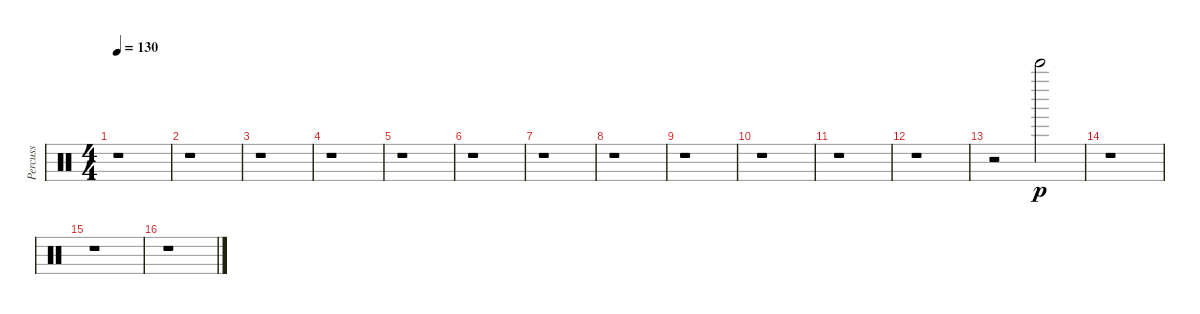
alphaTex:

\track ("Percuss" "Percuss") {instrument percussion}
\staff {score}
\articulation defaults
\ts (4 4)
\tempo 130
\clef neutral
\ks c
r.1{dy p} |
r.1 |
r.1 |
r.1 |
r.1 |
r.1 |
r.1 |
r.1 |
r.1 |
r.1 |
r.1 |
r.1 |
r.2 "Bell Tree (hit)".2 |
r.1 |
r.1 |
r.1
